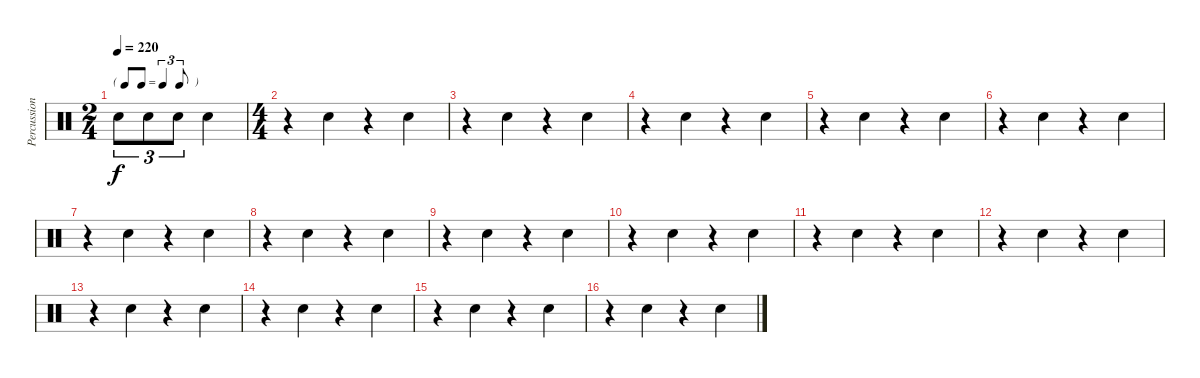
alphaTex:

\track ("Percussion" "Percussion") {instrument percussion}
\staff {score}
\articulation defaults
\ts (2 4)
\tf triplet8th
\tempo 220
\clef neutral
\ks c "Snare (hit) 2".8{tu (3 2) dy f} "Snare (hit) 2".8{tu (3 2)} "Snare (hit) 2".8{tu (3 2)} "Snare (hit) 2".4
|
\ts (4 4)
r.4 "Snare (hit) 2".4 r.4 "Snare (hit) 2".4 |
r.4 "Snare (hit) 2".4 r.4 "Snare (hit) 2".4 |
r.4 "Snare (hit) 2".4 r.4 "Snare (hit) 2".4 |
r.4 "Snare (hit) 2".4 r.4 "Snare (hit) 2".4 |
r.4 "Snare (hit) 2".4 r.4 "Snare (hit) 2".4 |
r.4 "Snare (hit) 2".4 r.4 "Snare (hit) 2".4 |
r.4 "Snare (hit) 2".4 r.4 "Snare (hit) 2".4 |
r.4 "Snare (hit) 2".4 r.4 "Snare (hit) 2".4 |
r.4 "Snare (hit) 2".4 r.4 "Snare (hit) 2".4 |
r.4 "Snare (hit) 2".4 r.4 "Snare (hit) 2".4 |
r.4 "Snare (hit) 2".4 r.4 "Snare (hit) 2".4 |
r.4 "Snare (hit) 2".4 r.4 "Snare (hit) 2".4 |
r.4 "Snare (hit) 2".4 r.4 "Snare (hit) 2".4 |
r.4 "Snare (hit) 2".4 r.4 "Snare (hit) 2".4 |
r.4 "Snare (hit) 2".4 r.4 "Snare (hit) 2".4
